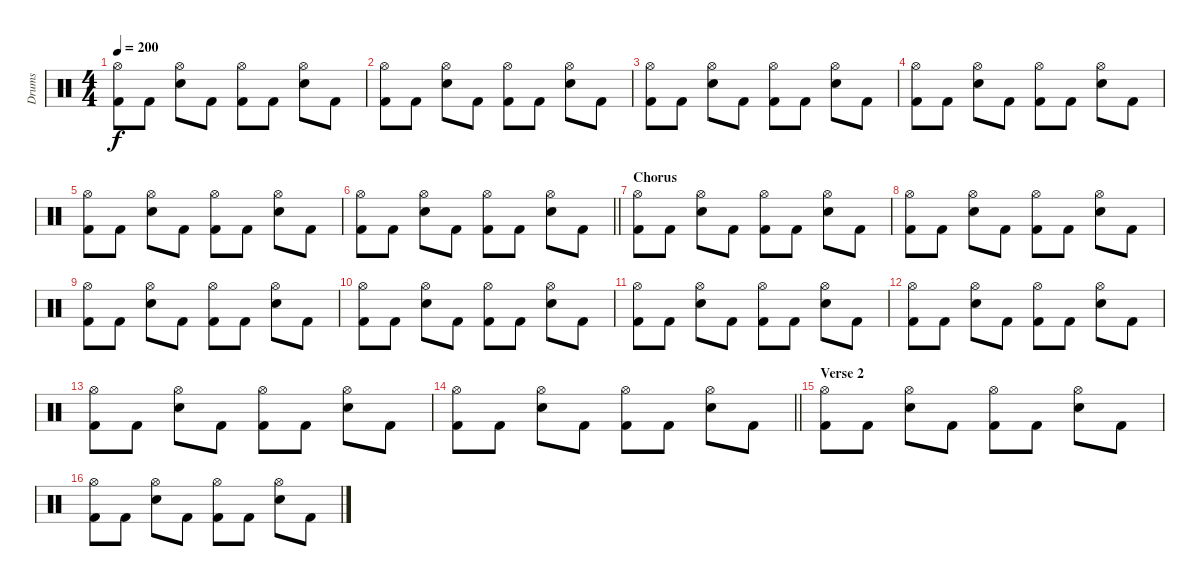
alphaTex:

\track ("Drums" "Drums") {instrument percussion}
\staff {score}
\articulation defaults
\ts (4 4)
\tempo 200
\clef neutral
\ks c
("Kick (hit) 2" "Hi-Hat (open)").8{dy f} "Kick (hit) 2".8 ("Snare (hit) 2" "Hi-Hat (open)").8 "Kick (hit) 2".8 ("Kick (hit) 2" "Hi-Hat (open)").8 "Kick (hit) 2".8 ("Snare (hit) 2" "Hi-Hat (open)").8 "Kick (hit) 2".8 |
("Kick (hit) 2" "Hi-Hat (open)").8 "Kick (hit) 2".8 ("Snare (hit) 2" "Hi-Hat (open)").8 "Kick (hit) 2".8 ("Kick (hit) 2" "Hi-Hat (open)").8 "Kick (hit) 2".8 ("Snare (hit) 2" "Hi-Hat (open)").8 "Kick (hit) 2".8 |
("Kick (hit) 2" "Hi-Hat (open)").8 "Kick (hit) 2".8 ("Snare (hit) 2" "Hi-Hat (open)").8 "Kick (hit) 2".8 ("Kick (hit) 2" "Hi-Hat (open)").8 "Kick (hit) 2".8 ("Snare (hit) 2" "Hi-Hat (open)").8 "Kick (hit) 2".8 |
("Kick (hit) 2" "Hi-Hat (open)").8 "Kick (hit) 2".8 ("Snare (hit) 2" "Hi-Hat (open)").8 "Kick (hit) 2".8 ("Kick (hit) 2" "Hi-Hat (open)").8 "Kick (hit) 2".8 ("Snare (hit) 2" "Hi-Hat (open)").8 "Kick (hit) 2".8 |
("Kick (hit) 2" "Hi-Hat (open)").8 "Kick (hit) 2".8 ("Snare (hit) 2" "Hi-Hat (open)").8 "Kick (hit) 2".8 ("Kick (hit) 2" "Hi-Hat (open)").8 "Kick (hit) 2".8 ("Snare (hit) 2" "Hi-Hat (open)").8 "Kick (hit) 2".8 |
\barLineRight lightlight
("Kick (hit) 2" "Hi-Hat (open)").8 "Kick (hit) 2".8 ("Snare (hit) 2" "Hi-Hat (open)").8 "Kick (hit) 2".8 ("Kick (hit) 2" "Hi-Hat (open)").8 "Kick (hit) 2".8 ("Snare (hit) 2" "Hi-Hat (open)").8 "Kick (hit) 2".8 |
\section ("" "Chorus")
("Kick (hit) 2" "Hi-Hat (open)").8 "Kick (hit) 2".8 ("Snare (hit) 2" "Hi-Hat (open)").8 "Kick (hit) 2".8 ("Kick (hit) 2" "Hi-Hat (open)").8 "Kick (hit) 2".8 ("Snare (hit) 2" "Hi-Hat (open)").8 "Kick (hit) 2".8 |
("Kick (hit) 2" "Hi-Hat (open)").8 "Kick (hit) 2".8 ("Snare (hit) 2" "Hi-Hat (open)").8 "Kick (hit) 2".8 ("Kick (hit) 2" "Hi-Hat (open)").8 "Kick (hit) 2".8 ("Snare (hit) 2" "Hi-Hat (open)").8 "Kick (hit) 2".8 |
("Kick (hit) 2" "Hi-Hat (open)").8 "Kick (hit) 2".8 ("Snare (hit) 2" "Hi-Hat (open)").8 "Kick (hit) 2".8 ("Kick (hit) 2" "Hi-Hat (open)").8 "Kick (hit) 2".8 ("Snare (hit) 2" "Hi-Hat (open)").8 "Kick (hit) 2".8 |
("Kick (hit) 2" "Hi-Hat (open)").8 "Kick (hit) 2".8 ("Snare (hit) 2" "Hi-Hat (open)").8 "Kick (hit) 2".8 ("Kick (hit) 2" "Hi-Hat (open)").8 "Kick (hit) 2".8 ("Snare (hit) 2" "Hi-Hat (open)").8 "Kick (hit) 2".8 |
("Kick (hit) 2" "Hi-Hat (open)").8 "Kick (hit) 2".8 ("Snare (hit) 2" "Hi-Hat (open)").8 "Kick (hit) 2".8 ("Kick (hit) 2" "Hi-Hat (open)").8 "Kick (hit) 2".8 ("Snare (hit) 2" "Hi-Hat (open)").8 "Kick (hit) 2".8 |
("Kick (hit) 2" "Hi-Hat (open)").8 "Kick (hit) 2".8 ("Snare (hit) 2" "Hi-Hat (open)").8 "Kick (hit) 2".8 ("Kick (hit) 2" "Hi-Hat (open)").8 "Kick (hit) 2".8 ("Snare (hit) 2" "Hi-Hat (open)").8 "Kick (hit) 2".8 |
("Kick (hit) 2" "Hi-Hat (open)").8 "Kick (hit) 2".8 ("Snare (hit) 2" "Hi-Hat (open)").8 "Kick (hit) 2".8 ("Kick (hit) 2" "Hi-Hat (open)").8 "Kick (hit) 2".8 ("Snare (hit) 2" "Hi-Hat (open)").8 "Kick (hit) 2".8 |
\barLineRight lightlight
("Kick (hit) 2" "Hi-Hat (open)").8 "Kick (hit) 2".8 ("Snare (hit) 2" "Hi-Hat (open)").8 "Kick (hit) 2".8 ("Kick (hit) 2" "Hi-Hat (open)").8 "Kick (hit) 2".8 ("Snare (hit) 2" "Hi-Hat (open)").8 "Kick (hit) 2".8 |
\section ("" "Verse 2")
("Kick (hit) 2" "Hi-Hat (open)").8 "Kick (hit) 2".8 ("Snare (hit) 2" "Hi-Hat (open)").8 "Kick (hit) 2".8 ("Kick (hit) 2" "Hi-Hat (open)").8 "Kick (hit) 2".8 ("Snare (hit) 2" "Hi-Hat (open)").8 "Kick (hit) 2".8 |
("Kick (hit) 2" "Hi-Hat (open)").8 "Kick (hit) 2".8 ("Snare (hit) 2" "Hi-Hat (open)").8 "Kick (hit) 2".8 ("Kick (hit) 2" "Hi-Hat (open)").8 "Kick (hit) 2".8 ("Snare (hit) 2" "Hi-Hat (open)").8 "Kick (hit) 2".8
